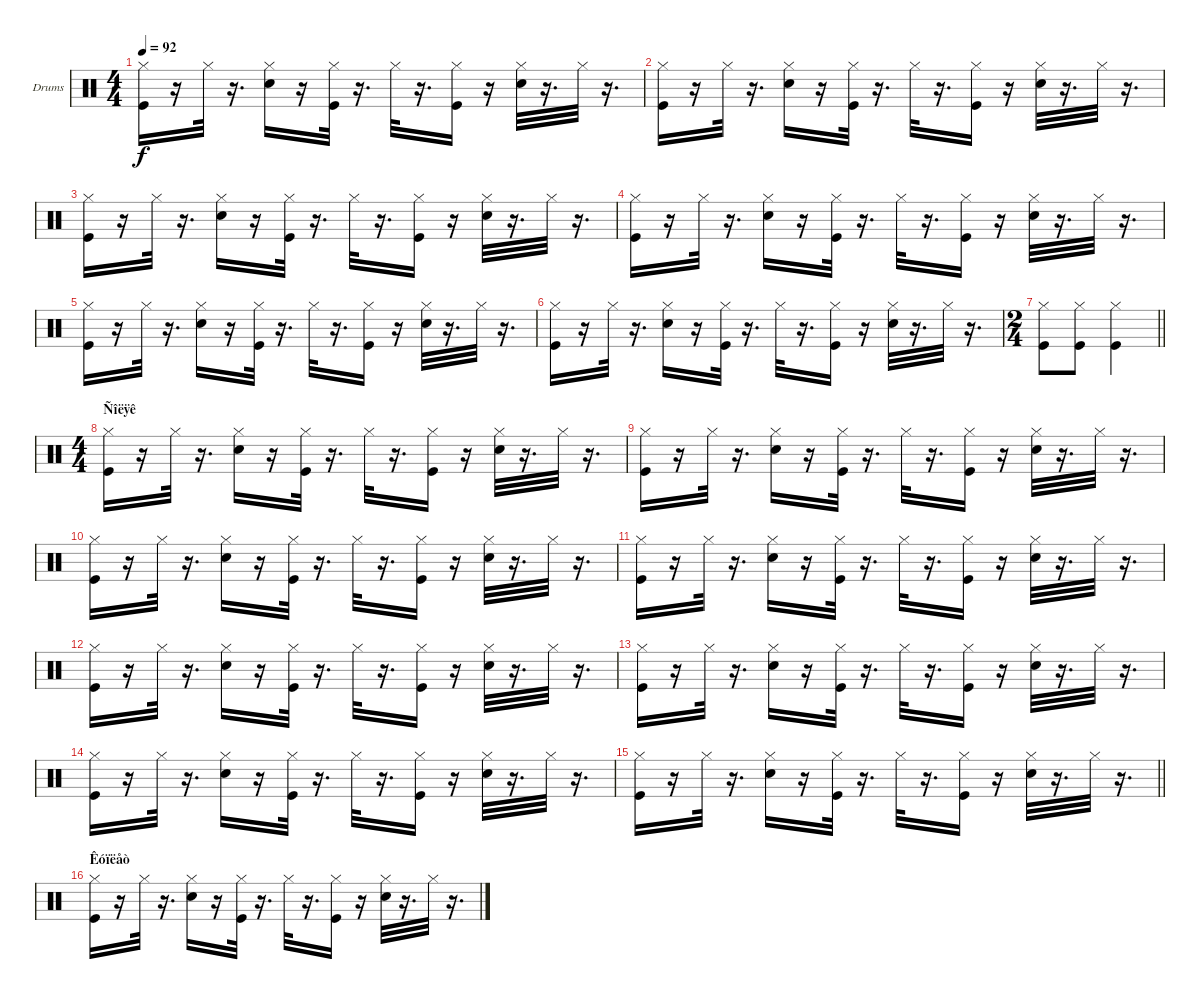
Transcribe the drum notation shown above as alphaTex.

\bracketExtendMode groupsimilarinstruments
\firstSystemTrackNameOrientation horizontal
\otherSystemsTrackNameOrientation horizontal
\track ("Drumkit" "Drums") {instrument percussion}
\staff {score}
\articulation defaults
\ts (4 4)
\tempo 92
\clef neutral
\ks c
("Kick (hit)" "Hi-Hat (closed)").16{dy f} r.16 "Hi-Hat (closed)".32 r.16{d} ("Snare (hit) 2" "Hi-Hat (closed)").16 r.16 ("Kick (hit)" "Hi-Hat (closed)").32 r.16{d} "Hi-Hat (closed)".32 r.16{d} ("Kick (hit)" "Hi-Hat (closed)").16 r.16 ("Snare (hit) 2" "Hi-Hat (closed)").32 r.16{d} "Hi-Hat (closed)".32 r.16{d} |
("Kick (hit)" "Hi-Hat (closed)").16 r.16 "Hi-Hat (closed)".32 r.16{d} ("Snare (hit) 2" "Hi-Hat (closed)").16 r.16 ("Kick (hit)" "Hi-Hat (closed)").32 r.16{d} "Hi-Hat (closed)".32 r.16{d} ("Kick (hit)" "Hi-Hat (closed)").16 r.16 ("Snare (hit) 2" "Hi-Hat (closed)").32 r.16{d} "Hi-Hat (closed)".32 r.16{d} |
("Kick (hit)" "Hi-Hat (closed)").16 r.16 "Hi-Hat (closed)".32 r.16{d} ("Snare (hit) 2" "Hi-Hat (closed)").16 r.16 ("Kick (hit)" "Hi-Hat (closed)").32 r.16{d} "Hi-Hat (closed)".32 r.16{d} ("Kick (hit)" "Hi-Hat (closed)").16 r.16 ("Snare (hit) 2" "Hi-Hat (closed)").32 r.16{d} "Hi-Hat (closed)".32 r.16{d} |
("Kick (hit)" "Hi-Hat (closed)").16 r.16 "Hi-Hat (closed)".32 r.16{d} ("Snare (hit) 2" "Hi-Hat (closed)").16 r.16 ("Kick (hit)" "Hi-Hat (closed)").32 r.16{d} "Hi-Hat (closed)".32 r.16{d} ("Kick (hit)" "Hi-Hat (closed)").16 r.16 ("Snare (hit) 2" "Hi-Hat (closed)").32 r.16{d} "Hi-Hat (closed)".32 r.16{d} |
("Kick (hit)" "Hi-Hat (closed)").16 r.16 "Hi-Hat (closed)".32 r.16{d} ("Snare (hit) 2" "Hi-Hat (closed)").16 r.16 ("Kick (hit)" "Hi-Hat (closed)").32 r.16{d} "Hi-Hat (closed)".32 r.16{d} ("Kick (hit)" "Hi-Hat (closed)").16 r.16 ("Snare (hit) 2" "Hi-Hat (closed)").32 r.16{d} "Hi-Hat (closed)".32 r.16{d} |
("Kick (hit)" "Hi-Hat (closed)").16 r.16 "Hi-Hat (closed)".32 r.16{d} ("Snare (hit) 2" "Hi-Hat (closed)").16 r.16 ("Kick (hit)" "Hi-Hat (closed)").32 r.16{d} "Hi-Hat (closed)".32 r.16{d} ("Kick (hit)" "Hi-Hat (closed)").16 r.16 ("Snare (hit) 2" "Hi-Hat (closed)").32 r.16{d} "Hi-Hat (closed)".32 r.16{d} |
\ts (2 4)
\beaming (8 2 2 2 2)
\barLineRight lightlight
("Kick (hit)" "Hi-Hat (closed)").8 ("Kick (hit)" "Hi-Hat (closed)").8 ("Kick (hit)" "Hi-Hat (closed)").4 |
\ts (4 4)
\beaming (8 2 2 2 2)
\section ("" "Ñîëÿê")
("Kick (hit)" "Hi-Hat (closed)").16 r.16 "Hi-Hat (closed)".32 r.16{d} ("Snare (hit) 2" "Hi-Hat (closed)").16 r.16 ("Kick (hit)" "Hi-Hat (closed)").32 r.16{d} "Hi-Hat (closed)".32 r.16{d} ("Kick (hit)" "Hi-Hat (closed)").16 r.16 ("Snare (hit) 2" "Hi-Hat (closed)").32 r.16{d} "Hi-Hat (closed)".32 r.16{d} |
("Kick (hit)" "Hi-Hat (closed)").16 r.16 "Hi-Hat (closed)".32 r.16{d} ("Snare (hit) 2" "Hi-Hat (closed)").16 r.16 ("Kick (hit)" "Hi-Hat (closed)").32 r.16{d} "Hi-Hat (closed)".32 r.16{d} ("Kick (hit)" "Hi-Hat (closed)").16 r.16 ("Snare (hit) 2" "Hi-Hat (closed)").32 r.16{d} "Hi-Hat (closed)".32 r.16{d} |
("Kick (hit)" "Hi-Hat (closed)").16 r.16 "Hi-Hat (closed)".32 r.16{d} ("Snare (hit) 2" "Hi-Hat (closed)").16 r.16 ("Kick (hit)" "Hi-Hat (closed)").32 r.16{d} "Hi-Hat (closed)".32 r.16{d} ("Kick (hit)" "Hi-Hat (closed)").16 r.16 ("Snare (hit) 2" "Hi-Hat (closed)").32 r.16{d} "Hi-Hat (closed)".32 r.16{d} |
("Kick (hit)" "Hi-Hat (closed)").16 r.16 "Hi-Hat (closed)".32 r.16{d} ("Snare (hit) 2" "Hi-Hat (closed)").16 r.16 ("Kick (hit)" "Hi-Hat (closed)").32 r.16{d} "Hi-Hat (closed)".32 r.16{d} ("Kick (hit)" "Hi-Hat (closed)").16 r.16 ("Snare (hit) 2" "Hi-Hat (closed)").32 r.16{d} "Hi-Hat (closed)".32 r.16{d} |
("Kick (hit)" "Hi-Hat (closed)").16 r.16 "Hi-Hat (closed)".32 r.16{d} ("Snare (hit) 2" "Hi-Hat (closed)").16 r.16 ("Kick (hit)" "Hi-Hat (closed)").32 r.16{d} "Hi-Hat (closed)".32 r.16{d} ("Kick (hit)" "Hi-Hat (closed)").16 r.16 ("Snare (hit) 2" "Hi-Hat (closed)").32 r.16{d} "Hi-Hat (closed)".32 r.16{d} |
("Kick (hit)" "Hi-Hat (closed)").16 r.16 "Hi-Hat (closed)".32 r.16{d} ("Snare (hit) 2" "Hi-Hat (closed)").16 r.16 ("Kick (hit)" "Hi-Hat (closed)").32 r.16{d} "Hi-Hat (closed)".32 r.16{d} ("Kick (hit)" "Hi-Hat (closed)").16 r.16 ("Snare (hit) 2" "Hi-Hat (closed)").32 r.16{d} "Hi-Hat (closed)".32 r.16{d} |
("Kick (hit)" "Hi-Hat (closed)").16 r.16 "Hi-Hat (closed)".32 r.16{d} ("Snare (hit) 2" "Hi-Hat (closed)").16 r.16 ("Kick (hit)" "Hi-Hat (closed)").32 r.16{d} "Hi-Hat (closed)".32 r.16{d} ("Kick (hit)" "Hi-Hat (closed)").16 r.16 ("Snare (hit) 2" "Hi-Hat (closed)").32 r.16{d} "Hi-Hat (closed)".32 r.16{d} |
\barLineRight lightlight
("Kick (hit)" "Hi-Hat (closed)").16 r.16 "Hi-Hat (closed)".32 r.16{d} ("Snare (hit) 2" "Hi-Hat (closed)").16 r.16 ("Kick (hit)" "Hi-Hat (closed)").32 r.16{d} "Hi-Hat (closed)".32 r.16{d} ("Kick (hit)" "Hi-Hat (closed)").16 r.16 ("Snare (hit) 2" "Hi-Hat (closed)").32 r.16{d} "Hi-Hat (closed)".32 r.16{d} |
\section ("" "Êóïëåò")
("Kick (hit)" "Hi-Hat (closed)").16 r.16 "Hi-Hat (closed)".32 r.16{d} ("Snare (hit) 2" "Hi-Hat (closed)").16 r.16 ("Kick (hit)" "Hi-Hat (closed)").32 r.16{d} "Hi-Hat (closed)".32 r.16{d} ("Kick (hit)" "Hi-Hat (closed)").16 r.16 ("Snare (hit) 2" "Hi-Hat (closed)").32 r.16{d} "Hi-Hat (closed)".32 r.16{d}
